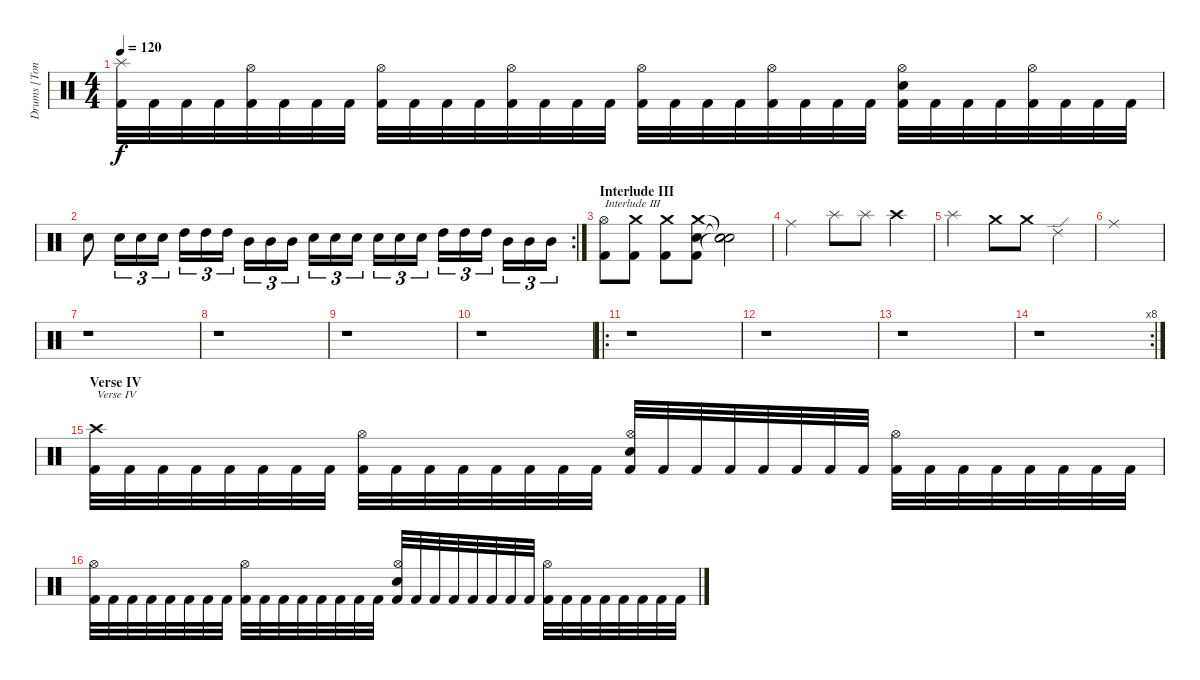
\track ("Drums [Tony Laureano]" "Drums [Ton") {instrument percussion}
\staff {score}
\articulation defaults
\ts (4 4)
\tempo 120
\clef neutral
\ks c
("Splash (hit)" "Kick (hit) 2").32{dy f} "Kick (hit) 2".32 "Kick (hit) 2".32 "Kick (hit) 2".32 ("Hi-Hat (open)" "Kick (hit) 2").32 "Kick (hit) 2".32 "Kick (hit) 2".32 "Kick (hit) 2".32 ("Hi-Hat (open)" "Kick (hit) 2").32 "Kick (hit) 2".32 "Kick (hit) 2".32 "Kick (hit) 2".32 ("Hi-Hat (open)" "Kick (hit) 2").32 "Kick (hit) 2".32 "Kick (hit) 2".32 "Kick (hit) 2".32 ("Hi-Hat (open)" "Kick (hit) 2").32 "Kick (hit) 2".32 "Kick (hit) 2".32 "Kick (hit) 2".32 ("Hi-Hat (open)" "Kick (hit) 2").32 "Kick (hit) 2".32 "Kick (hit) 2".32 "Kick (hit) 2".32 ("Hi-Hat (open)" "Electric Snare (hit)" "Kick (hit) 2").32 "Kick (hit) 2".32 "Kick (hit) 2".32 "Kick (hit) 2".32 ("Hi-Hat (open)" "Kick (hit) 2").32 "Kick (hit) 2".32 "Kick (hit) 2".32 "Kick (hit) 2".32 |
\rc 2 "Electric Snare (hit)".8 "Electric Snare (hit)".16{tu (3 2)} "Electric Snare (hit)".16{tu (3 2)} "Electric Snare (hit)".16{tu (3 2)} "High Tom (hit)".16{tu (3 2)} "High Tom (hit)".16{tu (3 2)} "High Tom (hit)".16{tu (3 2)} "Mid Tom (hit)".16{tu (3 2)} "Mid Tom (hit)".16{tu (3 2)} "Mid Tom (hit)".16{tu (3 2)} "Electric Snare (hit)".16{tu (3 2)} "Electric Snare (hit)".16{tu (3 2)} "Electric Snare (hit)".16{tu (3 2)} "Electric Snare (hit)".16{tu (3 2)} "Electric Snare (hit)".16{tu (3 2)} "Electric Snare (hit)".16{tu (3 2)} "High Tom (hit)".16{tu (3 2)} "High Tom (hit)".16{tu (3 2)} "High Tom (hit)".16{tu (3 2)} "Mid Tom (hit)".16{tu (3 2)} "Mid Tom (hit)".16{tu (3 2)} "Mid Tom (hit)".16{tu (3 2)}
|
\section ("" "Interlude III")
("Hi-Hat (open)" "Kick (hit) 2").8{txt "Interlude III"} ("Crash medium (hit)" "Kick (hit) 2").8 ("Crash medium (hit)" "Kick (hit) 2").8 ("Crash medium (hit)" "Electric Snare (hit)" "Kick (hit) 2").8 ("Snare (hit)"{t} "Snare (hit)"{t} "Snare (hit)"{t}).2 |
"Ride (middle)".2 "Splash (hit)".8 "Splash (hit)".8 "Crash high (hit)".4 |
"Splash (hit)".2 "Crash medium (hit)".8 "Crash medium (hit)".8 "Ride (edge) 2".4 |
"Ride (middle)".1 |
r.1 |
r.1 |
r.1 |
r.1 |
\ro
r.1 |
r.1 |
r.1 |
\rc 8
r.1 |
\section ("" "Verse IV")
("Crash high (hit)" "Kick (hit) 2").32{txt "Verse IV"} "Kick (hit) 2".32 "Kick (hit) 2".32 "Kick (hit) 2".32 "Kick (hit) 2".32 "Kick (hit) 2".32 "Kick (hit) 2".32 "Kick (hit) 2".32 ("Hi-Hat (open)" "Kick (hit) 2").32 "Kick (hit) 2".32 "Kick (hit) 2".32 "Kick (hit) 2".32 "Kick (hit) 2".32 "Kick (hit) 2".32 "Kick (hit) 2".32 "Kick (hit) 2".32 ("Hi-Hat (open)" "Electric Snare (hit)" "Kick (hit) 2").32 "Kick (hit) 2".32 "Kick (hit) 2".32 "Kick (hit) 2".32 "Kick (hit) 2".32 "Kick (hit) 2".32 "Kick (hit) 2".32 "Kick (hit) 2".32 ("Hi-Hat (open)" "Kick (hit) 2").32 "Kick (hit) 2".32 "Kick (hit) 2".32 "Kick (hit) 2".32 "Kick (hit) 2".32 "Kick (hit) 2".32 "Kick (hit) 2".32 "Kick (hit) 2".32 |
("Hi-Hat (open)" "Kick (hit) 2").32 "Kick (hit) 2".32 "Kick (hit) 2".32 "Kick (hit) 2".32 "Kick (hit) 2".32 "Kick (hit) 2".32 "Kick (hit) 2".32 "Kick (hit) 2".32 ("Hi-Hat (open)" "Kick (hit) 2").32 "Kick (hit) 2".32 "Kick (hit) 2".32 "Kick (hit) 2".32 "Kick (hit) 2".32 "Kick (hit) 2".32 "Kick (hit) 2".32 "Kick (hit) 2".32 ("Hi-Hat (open)" "Electric Snare (hit)" "Kick (hit) 2").32 "Kick (hit) 2".32 "Kick (hit) 2".32 "Kick (hit) 2".32 "Kick (hit) 2".32 "Kick (hit) 2".32 "Kick (hit) 2".32 "Kick (hit) 2".32 ("Hi-Hat (open)" "Kick (hit) 2").32 "Kick (hit) 2".32 "Kick (hit) 2".32 "Kick (hit) 2".32 "Kick (hit) 2".32 "Kick (hit) 2".32 "Kick (hit) 2".32 "Kick (hit) 2".32
